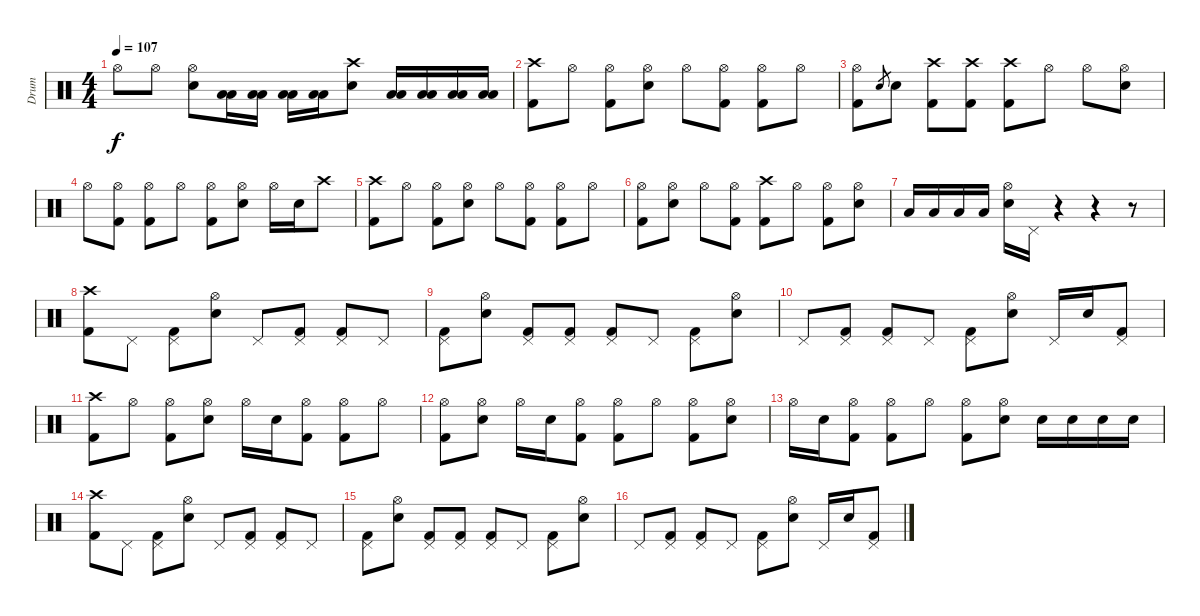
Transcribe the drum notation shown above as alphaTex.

\track ("Drum" "Drum") {instrument percussion}
\staff {score}
\articulation defaults
\ts (4 4)
\tempo 107
\clef neutral
\ks c "Hi-Hat (open)".8{dy f} "Hi-Hat (open)".8
("Hi-Hat (open)" "Electric Snare (hit)").8 ("Low Tom (hit)" "Low Floor Tom (hit)").16 ("Low Tom (hit)" "Low Floor Tom (hit)").16 ("Low Tom (hit)" "Low Floor Tom (hit)").16 ("Low Tom (hit)" "Low Floor Tom (hit)").16 ("Crash high (hit)" "Electric Snare (hit)").8 ("Low Tom (hit)" "Low Floor Tom (hit)").16 ("Low Tom (hit)" "Low Floor Tom (hit)").16 ("Low Tom (hit)" "Low Floor Tom (hit)").16 ("Low Tom (hit)" "Low Floor Tom (hit)").16 |
("Crash high (hit)" "Kick (hit) 2").8 "Hi-Hat (open)".8 ("Hi-Hat (open)" "Kick (hit) 2").8 ("Hi-Hat (open)" "Electric Snare (hit)").8 "Hi-Hat (open)".8 ("Hi-Hat (open)" "Kick (hit) 2").8 ("Hi-Hat (open)" "Kick (hit) 2").8 "Hi-Hat (open)".8 |
("Hi-Hat (open)" "Kick (hit) 2").8 "Electric Snare (hit)".8{gr} "Electric Snare (hit)".8 ("Crash high (hit)" "Kick (hit) 2").8 ("Crash high (hit)" "Kick (hit) 2").8 ("Crash high (hit)" "Kick (hit) 2").8 "Hi-Hat (open)".8 "Hi-Hat (open)".8 ("Hi-Hat (open)" "Electric Snare (hit)").8 |
"Hi-Hat (open)".8 ("Hi-Hat (open)" "Kick (hit) 2").8 ("Hi-Hat (open)" "Kick (hit) 2").8 "Hi-Hat (open)".8 ("Hi-Hat (open)" "Kick (hit) 2").8 ("Hi-Hat (open)" "Electric Snare (hit)").8 "Hi-Hat (open)".16 "Electric Snare (hit)".16 "Crash high (hit)".8 |
("Crash high (hit)" "Kick (hit) 2").8 "Hi-Hat (open)".8 ("Hi-Hat (open)" "Kick (hit) 2").8 ("Hi-Hat (open)" "Electric Snare (hit)").8 "Hi-Hat (open)".8 ("Hi-Hat (open)" "Kick (hit) 2").8 ("Hi-Hat (open)" "Kick (hit) 2").8 "Hi-Hat (open)".8 |
("Hi-Hat (open)" "Kick (hit) 2").8 ("Hi-Hat (open)" "Electric Snare (hit)").8 "Hi-Hat (open)".8 ("Hi-Hat (open)" "Kick (hit) 2").8 ("Crash high (hit)" "Kick (hit) 2").8 "Hi-Hat (open)".8 ("Hi-Hat (open)" "Kick (hit) 2").8 ("Hi-Hat (open)" "Electric Snare (hit)").8 |
"Low Tom (hit)".16 "Low Tom (hit)".16 "Low Tom (hit)".16 "Low Tom (hit)".16 ("Hi-Hat (open)" "Electric Snare (hit)").16 "Pedal Hi-Hat (hit)".16 r.4 r.4 r.8 |
("Crash high (hit)" "Kick (hit) 2").8 "Pedal Hi-Hat (hit)".8 ("Pedal Hi-Hat (hit)" "Kick (hit) 2").8 ("Hi-Hat (open)" "Electric Snare (hit)").8 "Pedal Hi-Hat (hit)".8 ("Pedal Hi-Hat (hit)" "Kick (hit) 2").8 ("Pedal Hi-Hat (hit)" "Kick (hit) 2").8 "Pedal Hi-Hat (hit)".8 |
("Pedal Hi-Hat (hit)" "Kick (hit) 2").8 ("Hi-Hat (open)" "Electric Snare (hit)").8 ("Pedal Hi-Hat (hit)" "Kick (hit) 2").8 ("Pedal Hi-Hat (hit)" "Kick (hit) 2").8 ("Pedal Hi-Hat (hit)" "Kick (hit) 2").8 "Pedal Hi-Hat (hit)".8 ("Pedal Hi-Hat (hit)" "Kick (hit) 2").8 ("Hi-Hat (open)" "Electric Snare (hit)").8 |
"Pedal Hi-Hat (hit)".8 ("Pedal Hi-Hat (hit)" "Kick (hit) 2").8 ("Pedal Hi-Hat (hit)" "Kick (hit) 2").8 "Pedal Hi-Hat (hit)".8 ("Pedal Hi-Hat (hit)" "Kick (hit) 2").8 ("Hi-Hat (open)" "Electric Snare (hit)").8 "Pedal Hi-Hat (hit)".16 "Electric Snare (hit)".16 ("Pedal Hi-Hat (hit)" "Kick (hit) 2").8 |
("Crash high (hit)" "Kick (hit) 2").8 "Hi-Hat (open)".8 ("Hi-Hat (open)" "Kick (hit) 2").8 ("Hi-Hat (open)" "Electric Snare (hit)").8 "Hi-Hat (open)".16 "Electric Snare (hit)".16 ("Hi-Hat (open)" "Kick (hit) 2").8 ("Hi-Hat (open)" "Kick (hit) 2").8 "Hi-Hat (open)".8 |
("Hi-Hat (open)" "Kick (hit) 2").8 ("Hi-Hat (open)" "Electric Snare (hit)").8 "Hi-Hat (open)".16 "Electric Snare (hit)".16 ("Hi-Hat (open)" "Kick (hit) 2").8 ("Hi-Hat (open)" "Kick (hit) 2").8 "Hi-Hat (open)".8 ("Hi-Hat (open)" "Kick (hit) 2").8 ("Hi-Hat (open)" "Electric Snare (hit)").8 |
"Hi-Hat (open)".16 "Electric Snare (hit)".16 ("Hi-Hat (open)" "Kick (hit) 2").8 ("Hi-Hat (open)" "Kick (hit) 2").8 "Hi-Hat (open)".8 ("Hi-Hat (open)" "Kick (hit) 2").8 ("Hi-Hat (open)" "Electric Snare (hit)").8 "Electric Snare (hit)".16 "Electric Snare (hit)".16 "Electric Snare (hit)".16 "Electric Snare (hit)".16 |
("Crash high (hit)" "Kick (hit) 2").8 "Pedal Hi-Hat (hit)".8 ("Pedal Hi-Hat (hit)" "Kick (hit) 2").8 ("Hi-Hat (open)" "Electric Snare (hit)").8 "Pedal Hi-Hat (hit)".8 ("Pedal Hi-Hat (hit)" "Kick (hit) 2").8 ("Pedal Hi-Hat (hit)" "Kick (hit) 2").8 "Pedal Hi-Hat (hit)".8 |
("Pedal Hi-Hat (hit)" "Kick (hit) 2").8 ("Hi-Hat (open)" "Electric Snare (hit)").8 ("Pedal Hi-Hat (hit)" "Kick (hit) 2").8 ("Pedal Hi-Hat (hit)" "Kick (hit) 2").8 ("Pedal Hi-Hat (hit)" "Kick (hit) 2").8 "Pedal Hi-Hat (hit)".8 ("Pedal Hi-Hat (hit)" "Kick (hit) 2").8 ("Hi-Hat (open)" "Electric Snare (hit)").8 |
"Pedal Hi-Hat (hit)".8 ("Pedal Hi-Hat (hit)" "Kick (hit) 2").8 ("Pedal Hi-Hat (hit)" "Kick (hit) 2").8 "Pedal Hi-Hat (hit)".8 ("Pedal Hi-Hat (hit)" "Kick (hit) 2").8 ("Hi-Hat (open)" "Electric Snare (hit)").8 "Pedal Hi-Hat (hit)".16 "Electric Snare (hit)".16 ("Pedal Hi-Hat (hit)" "Kick (hit) 2").8
